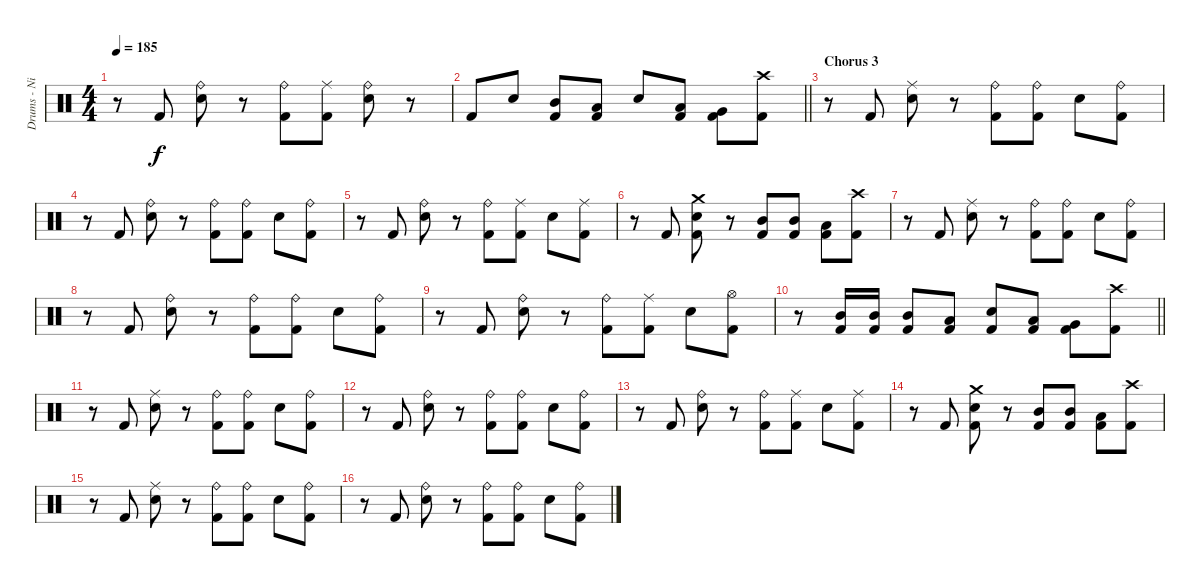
\track ("Drums - Nicko" "Drums - Ni") {instrument percussion}
\staff {score}
\articulation defaults
\ts (4 4)
\tempo 185
\clef neutral
\ks c
r.8{dy f} "Kick (hit) 2".8 ("Ride (bell)" "Snare (hit) 2").8 r.8 ("Ride (bell)" "Kick (hit) 2").8 ("Ride (middle)" "Kick (hit) 2").8 ("Ride (bell)" "Snare (hit) 2").8 r.8 |
\barLineRight lightlight "Kick (hit) 2".8 "Snare (hit) 2".8
("Mid Tom (hit)" "Kick (hit) 2").8 ("Low Tom (hit)" "Kick (hit) 2").8 "Snare (hit) 2".8 ("Low Tom (hit)" "Kick (hit) 2").8 ("Very Low Tom (hit)" "Kick (hit) 2").8 ("Crash high (hit)" "Kick (hit) 2").8 |
\section ("" "Chorus 3")
r.8 "Kick (hit) 2".8 ("Ride (middle)" "Snare (hit) 2").8 r.8 ("Ride (bell)" "Kick (hit) 2").8 ("Ride (bell)" "Kick (hit) 2").8 "Snare (hit) 2".8 ("Ride (bell)" "Kick (hit) 2").8 |
r.8 "Kick (hit) 2".8 ("Ride (bell)" "Snare (hit) 2").8 r.8 ("Ride (bell)" "Kick (hit) 2").8 ("Ride (bell)" "Kick (hit) 2").8 "Snare (hit) 2".8 ("Ride (bell)" "Kick (hit) 2").8 |
r.8 "Kick (hit) 2".8 ("Ride (bell)" "Snare (hit) 2").8 r.8 ("Ride (bell)" "Kick (hit) 2").8 ("Ride (middle)" "Kick (hit) 2").8 "Snare (hit) 2".8 ("Ride (middle)" "Kick (hit) 2").8 |
r.8 "Kick (hit) 2".8 ("Crash medium (hit)" "Snare (hit) 2" "Kick (hit) 2").8 r.8 ("Mid Tom (hit)" "Kick (hit) 2").8 ("Mid Tom (hit)" "Kick (hit) 2").8 ("Low Tom (hit)" "Kick (hit) 2").8 ("Crash high (hit)" "Kick (hit) 2").8 |
r.8 "Kick (hit) 2".8 ("Ride (middle)" "Snare (hit) 2").8 r.8 ("Ride (bell)" "Kick (hit) 2").8 ("Ride (bell)" "Kick (hit) 2").8 "Snare (hit) 2".8 ("Ride (bell)" "Kick (hit) 2").8 |
r.8 "Kick (hit) 2".8 ("Ride (bell)" "Snare (hit) 2").8 r.8 ("Ride (bell)" "Kick (hit) 2").8 ("Ride (bell)" "Kick (hit) 2").8 "Snare (hit) 2".8 ("Ride (bell)" "Kick (hit) 2").8 |
r.8 "Kick (hit) 2".8 ("Ride (bell)" "Snare (hit) 2").8 r.8 ("Ride (bell)" "Kick (hit) 2").8 ("Ride (middle)" "Kick (hit) 2").8 "Snare (hit) 2".8 ("Hi-Hat (open)" "Kick (hit) 2").8 |
\barLineRight lightlight
r.8 ("Mid Tom (hit)" "Kick (hit) 2").16 ("Mid Tom (hit)" "Kick (hit) 2").16 ("Mid Tom (hit)" "Kick (hit) 2").8 ("Low Tom (hit)" "Kick (hit) 2").8 ("Snare (hit) 2" "Kick (hit) 2").8 ("Low Tom (hit)" "Kick (hit) 2").8 ("Very Low Tom (hit)" "Kick (hit) 2").8 ("Crash high (hit)" "Kick (hit) 2").8 |
\section ("" "")
r.8 "Kick (hit) 2".8 ("Ride (middle)" "Snare (hit) 2").8 r.8 ("Ride (bell)" "Kick (hit) 2").8 ("Ride (bell)" "Kick (hit) 2").8 "Snare (hit) 2".8 ("Ride (bell)" "Kick (hit) 2").8 |
r.8 "Kick (hit) 2".8 ("Ride (bell)" "Snare (hit) 2").8 r.8 ("Ride (bell)" "Kick (hit) 2").8 ("Ride (bell)" "Kick (hit) 2").8 "Snare (hit) 2".8 ("Ride (bell)" "Kick (hit) 2").8 |
r.8 "Kick (hit) 2".8 ("Ride (bell)" "Snare (hit) 2").8 r.8 ("Ride (bell)" "Kick (hit) 2").8 ("Ride (middle)" "Kick (hit) 2").8 "Snare (hit) 2".8 ("Ride (middle)" "Kick (hit) 2").8 |
r.8 "Kick (hit) 2".8 ("Crash medium (hit)" "Snare (hit) 2" "Kick (hit) 2").8 r.8 ("Mid Tom (hit)" "Kick (hit) 2").8 ("Mid Tom (hit)" "Kick (hit) 2").8 ("Low Tom (hit)" "Kick (hit) 2").8 ("Crash high (hit)" "Kick (hit) 2").8 |
r.8 "Kick (hit) 2".8 ("Ride (middle)" "Snare (hit) 2").8 r.8 ("Ride (bell)" "Kick (hit) 2").8 ("Ride (bell)" "Kick (hit) 2").8 "Snare (hit) 2".8 ("Ride (bell)" "Kick (hit) 2").8 |
r.8 "Kick (hit) 2".8 ("Ride (bell)" "Snare (hit) 2").8 r.8 ("Ride (bell)" "Kick (hit) 2").8 ("Ride (bell)" "Kick (hit) 2").8 "Snare (hit) 2".8 ("Ride (bell)" "Kick (hit) 2").8
